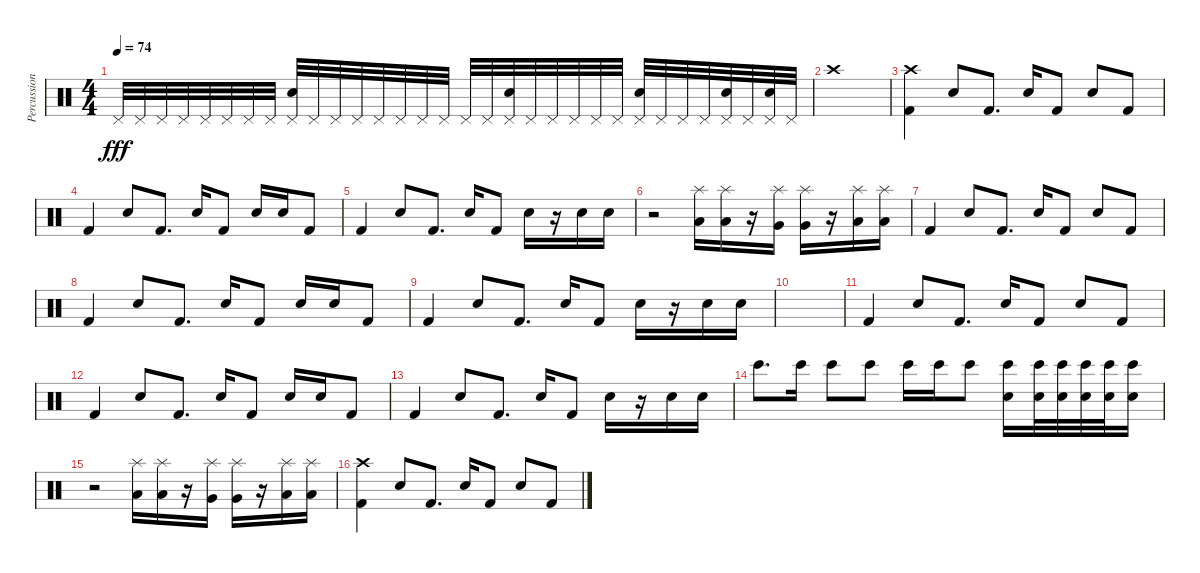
\track ("Percussion" "Percussion") {instrument percussion}
\staff {score}
\articulation defaults
\ts (4 4)
\tempo 74
\clef neutral
\ks c "Pedal Hi-Hat (hit)".32{dy fff} "Pedal Hi-Hat (hit)".32 "Pedal Hi-Hat (hit)".32 "Pedal Hi-Hat (hit)".32 "Pedal Hi-Hat (hit)".32 "Pedal Hi-Hat (hit)".32 "Pedal Hi-Hat (hit)".32 "Pedal Hi-Hat (hit)".32
("Pedal Hi-Hat (hit)" "Electric Snare (hit)").32 "Pedal Hi-Hat (hit)".32 "Pedal Hi-Hat (hit)".32 "Pedal Hi-Hat (hit)".32 "Pedal Hi-Hat (hit)".32 "Pedal Hi-Hat (hit)".32 "Pedal Hi-Hat (hit)".32 "Pedal Hi-Hat (hit)".32 "Pedal Hi-Hat (hit)".32 "Pedal Hi-Hat (hit)".32 ("Pedal Hi-Hat (hit)" "Electric Snare (hit)").32 "Pedal Hi-Hat (hit)".32 "Pedal Hi-Hat (hit)".32 "Pedal Hi-Hat (hit)".32 "Pedal Hi-Hat (hit)".32 "Pedal Hi-Hat (hit)".32 ("Pedal Hi-Hat (hit)" "Electric Snare (hit)").32 "Pedal Hi-Hat (hit)".32 "Pedal Hi-Hat (hit)".32 "Pedal Hi-Hat (hit)".32 ("Pedal Hi-Hat (hit)" "Electric Snare (hit)").32 "Pedal Hi-Hat (hit)".32 ("Pedal Hi-Hat (hit)" "Electric Snare (hit)").32 "Pedal Hi-Hat (hit)".32 |
"Crash high (hit)".1 |
("Crash high (hit)" "Kick (hit) 2").4 "Electric Snare (hit)".8 "Kick (hit) 2".8{d} "Electric Snare (hit)".16 "Kick (hit) 2".8 "Electric Snare (hit)".8 "Kick (hit) 2".8 |
"Kick (hit) 2".4 "Electric Snare (hit)".8 "Kick (hit) 2".8{d} "Electric Snare (hit)".16 "Kick (hit) 2".8 "Electric Snare (hit)".16 "Electric Snare (hit)".16 "Kick (hit) 2".8 |
"Kick (hit) 2".4 "Electric Snare (hit)".8 "Kick (hit) 2".8{d} "Electric Snare (hit)".16 "Kick (hit) 2".8 "Electric Snare (hit)".16 r.16 "Electric Snare (hit)".16 "Electric Snare (hit)".16 |
r.2 ("Splash (hit)" "Low Tom (hit)").16 ("Splash (hit)" "Low Tom (hit)").16 r.16 ("Splash (hit)" "Very Low Tom (hit)").16 ("Splash (hit)" "Very Low Tom (hit)").16 r.16 ("Splash (hit)" "Low Floor Tom (hit)").16 ("Splash (hit)" "Low Floor Tom (hit)").16 |
"Kick (hit) 2".4 "Electric Snare (hit)".8 "Kick (hit) 2".8{d} "Electric Snare (hit)".16 "Kick (hit) 2".8 "Electric Snare (hit)".8 "Kick (hit) 2".8 |
"Kick (hit) 2".4 "Electric Snare (hit)".8 "Kick (hit) 2".8{d} "Electric Snare (hit)".16 "Kick (hit) 2".8 "Electric Snare (hit)".16 "Electric Snare (hit)".16 "Kick (hit) 2".8 |
"Kick (hit) 2".4 "Electric Snare (hit)".8 "Kick (hit) 2".8{d} "Electric Snare (hit)".16 "Kick (hit) 2".8 "Electric Snare (hit)".16 r.16 "Electric Snare (hit)".16 "Electric Snare (hit)".16 |
|
"Kick (hit) 2".4 "Electric Snare (hit)".8 "Kick (hit) 2".8{d} "Electric Snare (hit)".16 "Kick (hit) 2".8 "Electric Snare (hit)".8 "Kick (hit) 2".8 |
"Kick (hit) 2".4 "Electric Snare (hit)".8 "Kick (hit) 2".8{d} "Electric Snare (hit)".16 "Kick (hit) 2".8 "Electric Snare (hit)".16 "Electric Snare (hit)".16 "Kick (hit) 2".8 |
"Kick (hit) 2".4 "Electric Snare (hit)".8 "Kick (hit) 2".8{d} "Electric Snare (hit)".16 "Kick (hit) 2".8 "Electric Snare (hit)".16 r.16 "Electric Snare (hit)".16 "Electric Snare (hit)".16 |
"Bongo High (hit)".8{d} "Bongo High (hit)".16 "Bongo High (hit)".8 "Bongo High (hit)".8 "Bongo High (hit)".16 "Bongo High (hit)".16 "Bongo High (hit)".8 ("Electric Snare (hit)" "Bongo High (hit)").16 ("Electric Snare (hit)" "Bongo High (hit)").32 ("Electric Snare (hit)" "Bongo High (hit)").32 ("Electric Snare (hit)" "Bongo High (hit)").32 ("Electric Snare (hit)" "Bongo High (hit)").32 ("Electric Snare (hit)" "Bongo High (hit)").16 |
r.2 ("Splash (hit)" "Low Tom (hit)").16 ("Splash (hit)" "Low Tom (hit)").16 r.16 ("Splash (hit)" "Very Low Tom (hit)").16 ("Splash (hit)" "Very Low Tom (hit)").16 r.16 ("Splash (hit)" "Low Floor Tom (hit)").16 ("Splash (hit)" "Low Floor Tom (hit)").16 |
("Crash high (hit)" "Kick (hit) 2").4 "Electric Snare (hit)".8 "Kick (hit) 2".8{d} "Electric Snare (hit)".16 "Kick (hit) 2".8 "Electric Snare (hit)".8 "Kick (hit) 2".8
